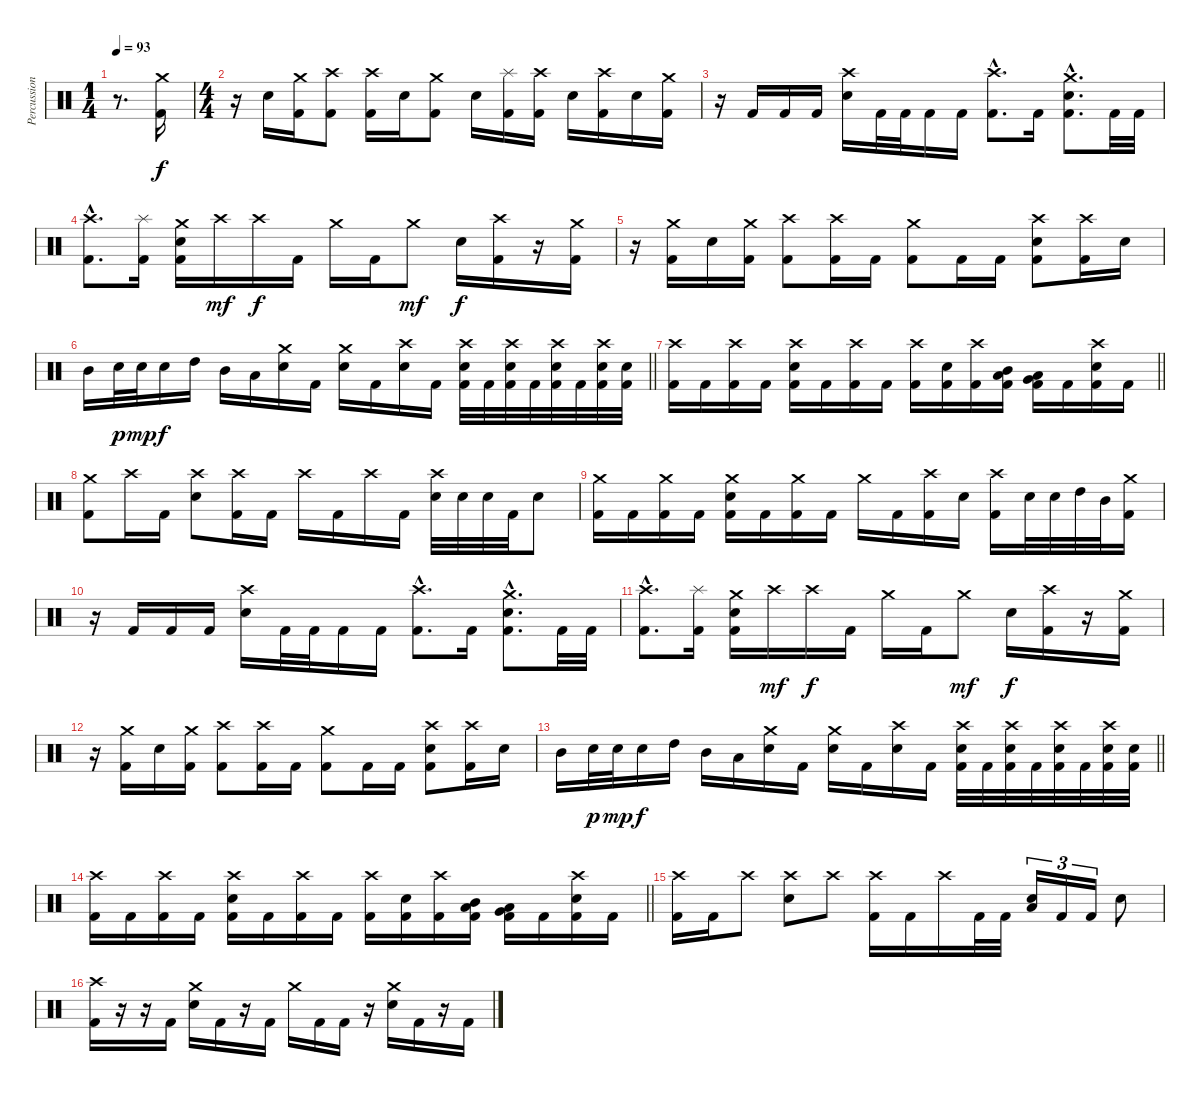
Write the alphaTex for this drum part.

\track ("Percussions" "Percussion") {instrument percussion}
\staff {score}
\articulation defaults
\ts (1 4)
\tempo 93
\clef neutral
\ks c
r.8{d dy f} ("Crash medium (hit)" "Kick (hit) 2").16 |
\ts (4 4)
r.16 "Electric Snare (hit)".16 ("Crash medium (hit)" "Kick (hit) 2").16 ("Crash high (hit)" "Kick (hit) 2").8 ("Crash high (hit)" "Kick (hit) 2").16 "Electric Snare (hit)".16 ("Crash medium (hit)" "Kick (hit) 2").8 "Electric Snare (hit)".16 ("Splash (hit)" "Kick (hit) 2").16 ("Crash high (hit)" "Kick (hit) 2").16 "Electric Snare (hit)".16 ("Crash high (hit)" "Kick (hit) 2").16 "Electric Snare (hit)".16 ("Crash medium (hit)" "Kick (hit) 2").16 |
r.16 "Kick (hit) 2".16 "Kick (hit) 2".16 "Kick (hit) 2".16 ("Crash high (hit)" "Electric Snare (hit)").16 "Kick (hit) 2".32 "Kick (hit) 2".32 "Kick (hit) 2".16 "Kick (hit) 2".16 ("Crash high (hit)"{hac} "Kick (hit) 2"{hac}).8{d} "Kick (hit) 2".16 ("Crash medium (hit)"{hac} "Electric Snare (hit)"{hac} "Kick (hit) 2"{hac}).8{d} "Kick (hit) 2".32 "Kick (hit) 2".32 |
("Crash high (hit)"{hac} "Kick (hit) 2"{hac}).8{d} ("Splash (hit)" "Kick (hit) 2").16 ("Crash medium (hit)" "Electric Snare (hit)" "Kick (hit) 2").16 "Crash high (hit)".16{dy mf} "Crash high (hit)".16{dy f} "Kick (hit) 2".16 "Crash medium (hit)".16 "Kick (hit) 2".16 "Crash medium (hit)".8{dy mf} "Electric Snare (hit)".16{dy f} ("Crash high (hit)" "Kick (hit) 2").16 r.16 ("Crash medium (hit)" "Kick (hit) 2").16 |
r.16 ("Crash medium (hit)" "Kick (hit) 2").16 "Electric Snare (hit)".16 ("Crash medium (hit)" "Kick (hit) 2").16 ("Crash high (hit)" "Kick (hit) 2").8 ("Crash high (hit)" "Kick (hit) 2").16 "Kick (hit) 2".16 ("Crash medium (hit)" "Kick (hit) 2").8 "Kick (hit) 2".16 "Kick (hit) 2".16 ("Crash high (hit)" "Electric Snare (hit)" "Kick (hit) 2").8 ("Crash high (hit)" "Kick (hit) 2").16 "Electric Snare (hit)".16 |
\barLineRight lightlight "Mid Tom (hit)".16 "Electric Snare (hit)".32{dy p} "Electric Snare (hit)".32{dy mp} "Electric Snare (hit)".16{dy f} "High Tom (hit)".16 "Mid Tom (hit)".16 "Low Tom (hit)".16
("Crash medium (hit)" "Electric Snare (hit)").16 "Kick (hit) 2".16 ("Crash medium (hit)" "Electric Snare (hit)").16 "Kick (hit) 2".16 ("Crash high (hit)" "Electric Snare (hit)").16 "Kick (hit) 2".16 ("Crash high (hit)" "Electric Snare (hit)" "Kick (hit) 2").32 "Kick (hit) 2".32 ("Crash high (hit)" "Electric Snare (hit)" "Kick (hit) 2").32 "Kick (hit) 2".32 ("Crash high (hit)" "Electric Snare (hit)" "Kick (hit) 2").32 "Kick (hit) 2".32 ("Crash high (hit)" "Electric Snare (hit)" "Kick (hit) 2").32 ("Electric Snare (hit)" "Kick (hit) 2").32 |
\barLineRight lightlight
("Crash high (hit)" "Kick (hit) 2").16 "Kick (hit) 2".16 ("Crash high (hit)" "Kick (hit) 2").16 "Kick (hit) 2".16 ("Crash high (hit)" "Electric Snare (hit)" "Kick (hit) 2").16 "Kick (hit) 2".16 ("Crash high (hit)" "Kick (hit) 2").16 "Kick (hit) 2".16 ("Crash high (hit)" "Kick (hit) 2").16 ("Electric Snare (hit)" "Kick (hit) 2").16 ("Crash high (hit)" "Kick (hit) 2").16 ("Mid Tom (hit)" "Low Tom (hit)" "Kick (hit) 2").16 ("Low Tom (hit)" "Very Low Tom (hit)" "Kick (hit) 2").16 "Kick (hit) 2".16 ("Crash high (hit)" "Electric Snare (hit)" "Kick (hit) 2").16 "Kick (hit) 2".16 |
("Crash medium (hit)" "Kick (hit) 2").8 "Crash high (hit)".16 "Kick (hit) 2".16 ("Crash high (hit)" "Electric Snare (hit)").8 ("Crash high (hit)" "Kick (hit) 2").16 "Kick (hit) 2".16 "Crash high (hit)".16 "Kick (hit) 2".16 "Crash high (hit)".16 "Kick (hit) 2".16 ("Crash high (hit)" "Electric Snare (hit)").32 "Electric Snare (hit)".32 "Electric Snare (hit)".32 "Kick (hit) 2".32 "Electric Snare (hit)".8 |
("Crash medium (hit)" "Kick (hit) 2").16 "Kick (hit) 2".16 ("Crash medium (hit)" "Kick (hit) 2").16 "Kick (hit) 2".16 ("Crash medium (hit)" "Electric Snare (hit)" "Kick (hit) 2").16 "Kick (hit) 2".16 ("Crash medium (hit)" "Kick (hit) 2").16 "Kick (hit) 2".16 "Crash medium (hit)".16 "Kick (hit) 2".16 ("Crash high (hit)" "Kick (hit) 2").16 "Electric Snare (hit)".16 ("Crash high (hit)" "Kick (hit) 2").16 "Electric Snare (hit)".32 "Electric Snare (hit)".32 "High Tom (hit)".32 "Mid Tom (hit)".32 ("Crash medium (hit)" "Kick (hit) 2").16 |
r.16 "Kick (hit) 2".16 "Kick (hit) 2".16 "Kick (hit) 2".16 ("Crash high (hit)" "Electric Snare (hit)").16 "Kick (hit) 2".32 "Kick (hit) 2".32 "Kick (hit) 2".16 "Kick (hit) 2".16 ("Crash high (hit)"{hac} "Kick (hit) 2"{hac}).8{d} "Kick (hit) 2".16 ("Crash medium (hit)"{hac} "Electric Snare (hit)"{hac} "Kick (hit) 2"{hac}).8{d} "Kick (hit) 2".32 "Kick (hit) 2".32 |
("Crash high (hit)"{hac} "Kick (hit) 2"{hac}).8{d} ("Splash (hit)" "Kick (hit) 2").16 ("Crash medium (hit)" "Electric Snare (hit)" "Kick (hit) 2").16 "Crash high (hit)".16{dy mf} "Crash high (hit)".16{dy f} "Kick (hit) 2".16 "Crash medium (hit)".16 "Kick (hit) 2".16 "Crash medium (hit)".8{dy mf} "Electric Snare (hit)".16{dy f} ("Crash high (hit)" "Kick (hit) 2").16 r.16 ("Crash medium (hit)" "Kick (hit) 2").16 |
r.16 ("Crash medium (hit)" "Kick (hit) 2").16 "Electric Snare (hit)".16 ("Crash medium (hit)" "Kick (hit) 2").16 ("Crash high (hit)" "Kick (hit) 2").8 ("Crash high (hit)" "Kick (hit) 2").16 "Kick (hit) 2".16 ("Crash medium (hit)" "Kick (hit) 2").8 "Kick (hit) 2".16 "Kick (hit) 2".16 ("Crash high (hit)" "Electric Snare (hit)" "Kick (hit) 2").8 ("Crash high (hit)" "Kick (hit) 2").16 "Electric Snare (hit)".16 |
\barLineRight lightlight "Mid Tom (hit)".16 "Electric Snare (hit)".32{dy p} "Electric Snare (hit)".32{dy mp} "Electric Snare (hit)".16{dy f} "High Tom (hit)".16 "Mid Tom (hit)".16 "Low Tom (hit)".16
("Crash medium (hit)" "Electric Snare (hit)").16 "Kick (hit) 2".16 ("Crash medium (hit)" "Electric Snare (hit)").16 "Kick (hit) 2".16 ("Crash high (hit)" "Electric Snare (hit)").16 "Kick (hit) 2".16 ("Crash high (hit)" "Electric Snare (hit)" "Kick (hit) 2").32 "Kick (hit) 2".32 ("Crash high (hit)" "Electric Snare (hit)" "Kick (hit) 2").32 "Kick (hit) 2".32 ("Crash high (hit)" "Electric Snare (hit)" "Kick (hit) 2").32 "Kick (hit) 2".32 ("Crash high (hit)" "Electric Snare (hit)" "Kick (hit) 2").32 ("Electric Snare (hit)" "Kick (hit) 2").32 |
\barLineRight lightlight
("Crash high (hit)" "Kick (hit) 2").16 "Kick (hit) 2".16 ("Crash high (hit)" "Kick (hit) 2").16 "Kick (hit) 2".16 ("Crash high (hit)" "Electric Snare (hit)" "Kick (hit) 2").16 "Kick (hit) 2".16 ("Crash high (hit)" "Kick (hit) 2").16 "Kick (hit) 2".16 ("Crash high (hit)" "Kick (hit) 2").16 ("Electric Snare (hit)" "Kick (hit) 2").16 ("Crash high (hit)" "Kick (hit) 2").16 ("Mid Tom (hit)" "Low Tom (hit)" "Kick (hit) 2").16 ("Low Tom (hit)" "Very Low Tom (hit)" "Kick (hit) 2").16 "Kick (hit) 2".16 ("Crash high (hit)" "Electric Snare (hit)" "Kick (hit) 2").16 "Kick (hit) 2".16 |
("Crash high (hit)" "Kick (hit) 2").16 "Kick (hit) 2".16 "Crash high (hit)".8 ("Crash high (hit)" "Electric Snare (hit)").8 "Crash high (hit)".8 ("Crash high (hit)" "Kick (hit) 2").16 "Kick (hit) 2".16 "Crash high (hit)".16 "Kick (hit) 2".32 "Kick (hit) 2".32 ("Low Tom (hit)" "Electric Snare (hit)").16{tu (3 2)} "Kick (hit) 2".16{tu (3 2)} "Kick (hit) 2".16{tu (3 2)} "Electric Snare (hit)".8 |
("Crash high (hit)" "Kick (hit) 2").16 r.16 r.16 "Kick (hit) 2".16 ("Crash medium (hit)" "Electric Snare (hit)").16 "Kick (hit) 2".16 r.16 "Kick (hit) 2".16 "Crash medium (hit)".16 "Kick (hit) 2".16 "Kick (hit) 2".16 r.16 ("Crash medium (hit)" "Electric Snare (hit)").16 "Kick (hit) 2".16 r.16 "Kick (hit) 2".16
